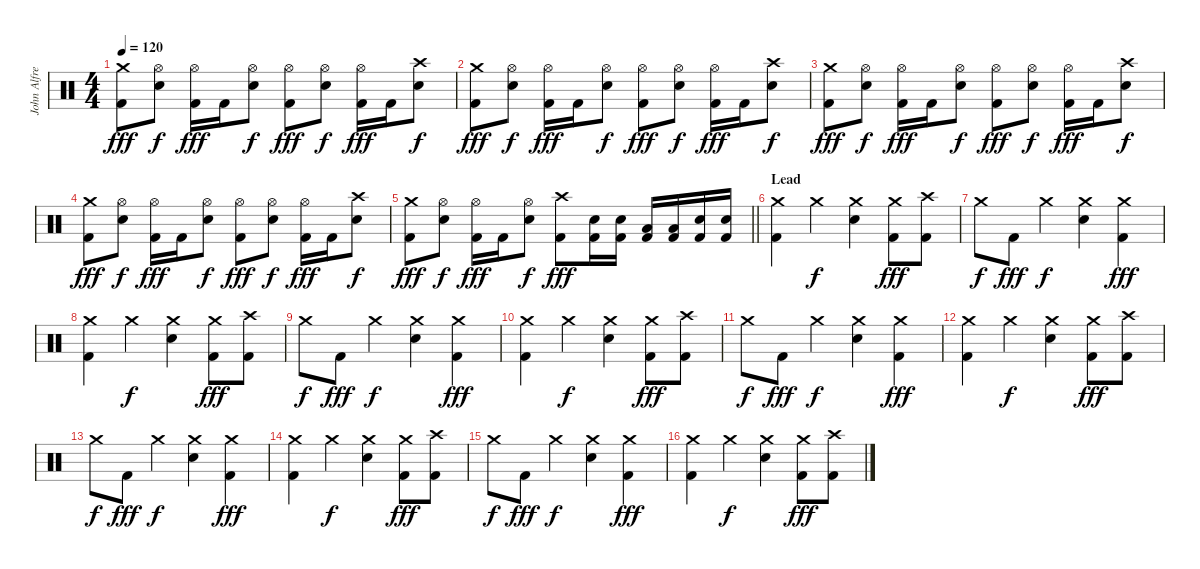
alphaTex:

\track ("John Alfredsson" "John Alfre") {instrument percussion}
\staff {score}
\articulation defaults
\ts (4 4)
\tempo 120
\clef neutral
\ks c
("Crash medium (hit)" "Kick (hit) 2").8{dy fff} ("Hi-Hat (open)" "Electric Snare (hit)").8{dy f} ("Hi-Hat (open)" "Kick (hit) 2").16{dy fff} "Kick (hit) 2".16 ("Hi-Hat (open)" "Electric Snare (hit)").8{dy f} ("Hi-Hat (open)" "Kick (hit) 2").8{dy fff} ("Hi-Hat (open)" "Electric Snare (hit)").8{dy f} ("Hi-Hat (open)" "Kick (hit) 2").16{dy fff} "Kick (hit) 2".16 ("Crash high (hit)" "Electric Snare (hit)").8{dy f} |
("Crash medium (hit)" "Kick (hit) 2").8{dy fff} ("Hi-Hat (open)" "Electric Snare (hit)").8{dy f} ("Hi-Hat (open)" "Kick (hit) 2").16{dy fff} "Kick (hit) 2".16 ("Hi-Hat (open)" "Electric Snare (hit)").8{dy f} ("Hi-Hat (open)" "Kick (hit) 2").8{dy fff} ("Hi-Hat (open)" "Electric Snare (hit)").8{dy f} ("Hi-Hat (open)" "Kick (hit) 2").16{dy fff} "Kick (hit) 2".16 ("Crash high (hit)" "Electric Snare (hit)").8{dy f} |
("Crash medium (hit)" "Kick (hit) 2").8{dy fff} ("Hi-Hat (open)" "Electric Snare (hit)").8{dy f} ("Hi-Hat (open)" "Kick (hit) 2").16{dy fff} "Kick (hit) 2".16 ("Hi-Hat (open)" "Electric Snare (hit)").8{dy f} ("Hi-Hat (open)" "Kick (hit) 2").8{dy fff} ("Hi-Hat (open)" "Electric Snare (hit)").8{dy f} ("Hi-Hat (open)" "Kick (hit) 2").16{dy fff} "Kick (hit) 2".16 ("Crash high (hit)" "Electric Snare (hit)").8{dy f} |
("Crash medium (hit)" "Kick (hit) 2").8{dy fff} ("Hi-Hat (open)" "Electric Snare (hit)").8{dy f} ("Hi-Hat (open)" "Kick (hit) 2").16{dy fff} "Kick (hit) 2".16 ("Hi-Hat (open)" "Electric Snare (hit)").8{dy f} ("Hi-Hat (open)" "Kick (hit) 2").8{dy fff} ("Hi-Hat (open)" "Electric Snare (hit)").8{dy f} ("Hi-Hat (open)" "Kick (hit) 2").16{dy fff} "Kick (hit) 2".16 ("Crash high (hit)" "Electric Snare (hit)").8{dy f} |
\barLineRight lightlight
("Crash medium (hit)" "Kick (hit) 2").8{dy fff} ("Hi-Hat (open)" "Electric Snare (hit)").8{dy f} ("Hi-Hat (open)" "Kick (hit) 2").16{dy fff} "Kick (hit) 2".16 ("Hi-Hat (open)" "Electric Snare (hit)").8{dy f} ("Crash high (hit)" "Kick (hit) 2").8{dy fff} ("Electric Snare (hit)" "Kick (hit) 2").16 ("Electric Snare (hit)" "Kick (hit) 2").16 ("Low Tom (hit)" "Kick (hit) 2").16 ("Low Tom (hit)" "Kick (hit) 2").16 ("Electric Snare (hit)" "Kick (hit) 2").16 ("Electric Snare (hit)" "Kick (hit) 2").16 |
\section ("" "Lead")
("Crash medium (hit)" "Kick (hit) 2").4 "Crash medium (hit)".4{dy f} ("Crash medium (hit)" "Electric Snare (hit)").4 ("Crash medium (hit)" "Kick (hit) 2").8{dy fff} ("Crash high (hit)" "Kick (hit) 2").8 |
"Crash medium (hit)".8{dy f} "Kick (hit) 2".8{dy fff} "Crash medium (hit)".4{dy f} ("Crash medium (hit)" "Electric Snare (hit)").4 ("Crash medium (hit)" "Kick (hit) 2").4{dy fff} |
("Crash medium (hit)" "Kick (hit) 2").4 "Crash medium (hit)".4{dy f} ("Crash medium (hit)" "Electric Snare (hit)").4 ("Crash medium (hit)" "Kick (hit) 2").8{dy fff} ("Crash high (hit)" "Kick (hit) 2").8 |
"Crash medium (hit)".8{dy f} "Kick (hit) 2".8{dy fff} "Crash medium (hit)".4{dy f} ("Crash medium (hit)" "Electric Snare (hit)").4 ("Crash medium (hit)" "Kick (hit) 2").4{dy fff} |
("Crash medium (hit)" "Kick (hit) 2").4 "Crash medium (hit)".4{dy f} ("Crash medium (hit)" "Electric Snare (hit)").4 ("Crash medium (hit)" "Kick (hit) 2").8{dy fff} ("Crash high (hit)" "Kick (hit) 2").8 |
"Crash medium (hit)".8{dy f} "Kick (hit) 2".8{dy fff} "Crash medium (hit)".4{dy f} ("Crash medium (hit)" "Electric Snare (hit)").4 ("Crash medium (hit)" "Kick (hit) 2").4{dy fff} |
("Crash medium (hit)" "Kick (hit) 2").4 "Crash medium (hit)".4{dy f} ("Crash medium (hit)" "Electric Snare (hit)").4 ("Crash medium (hit)" "Kick (hit) 2").8{dy fff} ("Crash high (hit)" "Kick (hit) 2").8 |
"Crash medium (hit)".8{dy f} "Kick (hit) 2".8{dy fff} "Crash medium (hit)".4{dy f} ("Crash medium (hit)" "Electric Snare (hit)").4 ("Crash medium (hit)" "Kick (hit) 2").4{dy fff} |
("Crash medium (hit)" "Kick (hit) 2").4 "Crash medium (hit)".4{dy f} ("Crash medium (hit)" "Electric Snare (hit)").4 ("Crash medium (hit)" "Kick (hit) 2").8{dy fff} ("Crash high (hit)" "Kick (hit) 2").8 |
"Crash medium (hit)".8{dy f} "Kick (hit) 2".8{dy fff} "Crash medium (hit)".4{dy f} ("Crash medium (hit)" "Electric Snare (hit)").4 ("Crash medium (hit)" "Kick (hit) 2").4{dy fff} |
("Crash medium (hit)" "Kick (hit) 2").4 "Crash medium (hit)".4{dy f} ("Crash medium (hit)" "Electric Snare (hit)").4 ("Crash medium (hit)" "Kick (hit) 2").8{dy fff} ("Crash high (hit)" "Kick (hit) 2").8
